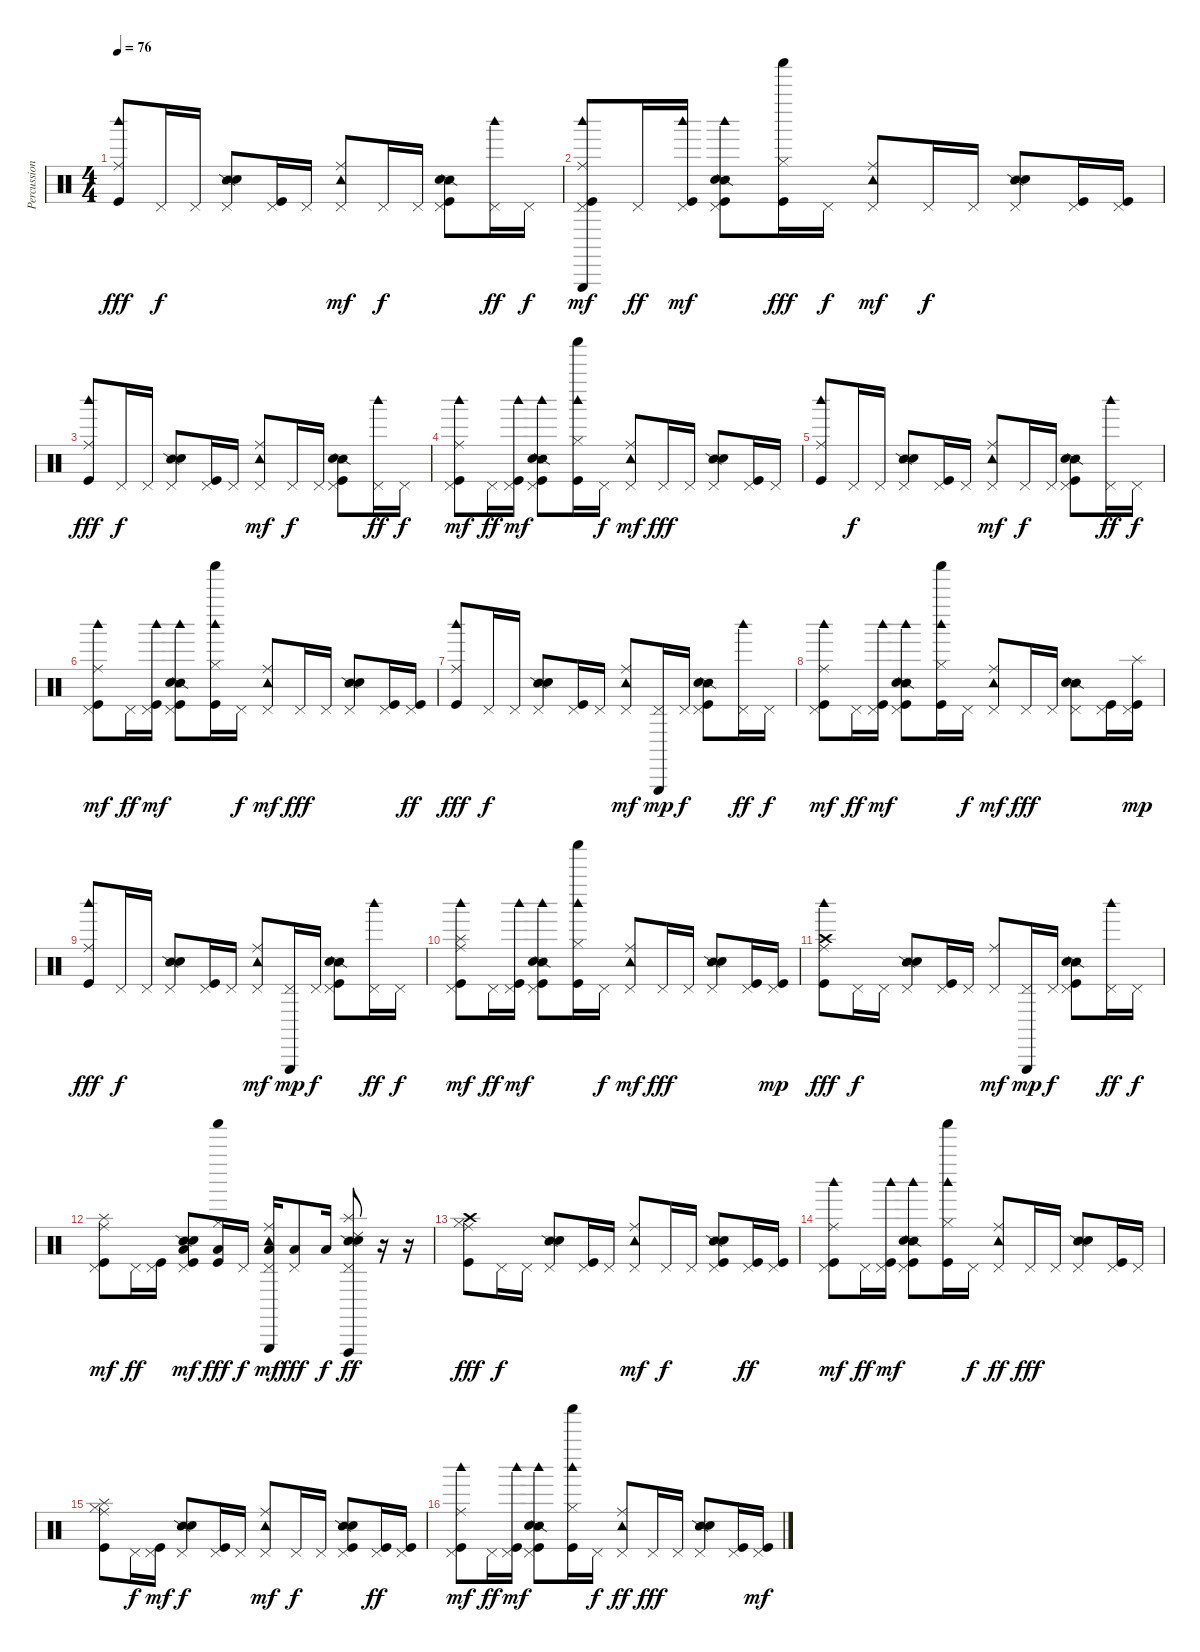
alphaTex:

\track ("Percussion" "Percussion") {instrument percussion}
\staff {score}
\articulation defaults
\ts (4 4)
\tempo 76
\clef neutral
\ks c
("Ride (middle)" "Woodblock high (hit)" "Kick (hit)").8{dy fff} "Pedal Hi-Hat (hit)".16{dy f} "Pedal Hi-Hat (hit)".16 ("Pedal Hi-Hat (hit)" "Snare (side stick) 2" "Hand Clap (hit)").8 ("Pedal Hi-Hat (hit)" "Kick (hit)").16 "Pedal Hi-Hat (hit)".16 ("Pedal Hi-Hat (hit)" "Tambourine (hit)" "Ride (middle)").8{dy mf} "Pedal Hi-Hat (hit)".16{dy f} "Pedal Hi-Hat (hit)".16 ("Pedal Hi-Hat (hit)" "Snare (side stick) 2" "Kick (hit)" "Hand Clap (hit)").8 ("Pedal Hi-Hat (hit)" "Woodblock high (hit)").16{dy ff} "Pedal Hi-Hat (hit)".16{dy f} |
("Pedal Hi-Hat (hit)" "Ride (middle)" "Kick (hit)" "Woodblock high (hit)" "Triangle (hit)").8{dy mf} "Pedal Hi-Hat (hit)".16{dy ff} ("Pedal Hi-Hat (hit)" "Kick (hit)" "Woodblock high (hit)").16{dy mf} ("Pedal Hi-Hat (hit)" "Snare (side stick) 2" "Kick (hit)" "Woodblock high (hit)" "Hand Clap (hit)").8 ("Hi-Hat (closed)" "Shaker (hit)" "Kick (hit)").16{dy fff} "Pedal Hi-Hat (hit)".16{dy f} ("Pedal Hi-Hat (hit)" "Ride (middle)" "Tambourine (hit)").8{dy mf} "Pedal Hi-Hat (hit)".16{dy f} "Pedal Hi-Hat (hit)".16 ("Pedal Hi-Hat (hit)" "Snare (side stick) 2" "Hand Clap (hit)").8 ("Pedal Hi-Hat (hit)" "Kick (hit)").16 ("Pedal Hi-Hat (hit)" "Kick (hit)").16 |
("Ride (middle)" "Woodblock high (hit)" "Kick (hit)").8{dy fff} "Pedal Hi-Hat (hit)".16{dy f} "Pedal Hi-Hat (hit)".16 ("Pedal Hi-Hat (hit)" "Snare (side stick) 2" "Hand Clap (hit)").8 ("Pedal Hi-Hat (hit)" "Kick (hit)").16 "Pedal Hi-Hat (hit)".16 ("Pedal Hi-Hat (hit)" "Tambourine (hit)" "Ride (middle)").8{dy mf} "Pedal Hi-Hat (hit)".16{dy f} "Pedal Hi-Hat (hit)".16 ("Pedal Hi-Hat (hit)" "Snare (side stick) 2" "Kick (hit)" "Hand Clap (hit)").8 ("Pedal Hi-Hat (hit)" "Woodblock high (hit)").16{dy ff} "Pedal Hi-Hat (hit)".16{dy f} |
("Pedal Hi-Hat (hit)" "Ride (middle)" "Kick (hit)" "Woodblock high (hit)").8{dy mf} "Pedal Hi-Hat (hit)".16{dy ff} ("Pedal Hi-Hat (hit)" "Kick (hit)" "Woodblock high (hit)").16{dy mf} ("Pedal Hi-Hat (hit)" "Snare (side stick) 2" "Kick (hit)" "Woodblock high (hit)" "Hand Clap (hit)").8 ("Hi-Hat (closed)" "Shaker (hit)" "Kick (hit)" "Woodblock high (hit)").16 "Pedal Hi-Hat (hit)".16{dy f} ("Pedal Hi-Hat (hit)" "Ride (middle)" "Tambourine (hit)").8{dy mf} "Pedal Hi-Hat (hit)".16{dy fff} "Pedal Hi-Hat (hit)".16 ("Pedal Hi-Hat (hit)" "Snare (side stick) 2" "Hand Clap (hit)").8 ("Pedal Hi-Hat (hit)" "Kick (hit)").16 "Pedal Hi-Hat (hit)".16 |
("Ride (middle)" "Woodblock high (hit)" "Kick (hit)").8 "Pedal Hi-Hat (hit)".16{dy f} "Pedal Hi-Hat (hit)".16 ("Pedal Hi-Hat (hit)" "Snare (side stick) 2" "Hand Clap (hit)").8 ("Pedal Hi-Hat (hit)" "Kick (hit)").16 "Pedal Hi-Hat (hit)".16 ("Pedal Hi-Hat (hit)" "Tambourine (hit)" "Ride (middle)").8{dy mf} "Pedal Hi-Hat (hit)".16{dy f} "Pedal Hi-Hat (hit)".16 ("Pedal Hi-Hat (hit)" "Snare (side stick) 2" "Kick (hit)" "Hand Clap (hit)").8 ("Pedal Hi-Hat (hit)" "Woodblock high (hit)").16{dy ff} "Pedal Hi-Hat (hit)".16{dy f} |
("Pedal Hi-Hat (hit)" "Ride (middle)" "Kick (hit)" "Woodblock high (hit)").8{dy mf volume 12} "Pedal Hi-Hat (hit)".16{dy ff} ("Pedal Hi-Hat (hit)" "Kick (hit)" "Woodblock high (hit)").16{dy mf} ("Pedal Hi-Hat (hit)" "Snare (side stick) 2" "Kick (hit)" "Woodblock high (hit)" "Hand Clap (hit)").8 ("Hi-Hat (closed)" "Shaker (hit)" "Kick (hit)" "Woodblock high (hit)").16 "Pedal Hi-Hat (hit)".16{dy f} ("Pedal Hi-Hat (hit)" "Ride (middle)" "Tambourine (hit)").8{dy mf} "Pedal Hi-Hat (hit)".16{dy fff} "Pedal Hi-Hat (hit)".16 ("Pedal Hi-Hat (hit)" "Snare (side stick) 2" "Hand Clap (hit)").8 ("Pedal Hi-Hat (hit)" "Kick (hit)").16 ("Pedal Hi-Hat (hit)" "Kick (hit)").16{dy ff} |
("Ride (middle)" "Woodblock high (hit)" "Kick (hit)").8{dy fff} "Pedal Hi-Hat (hit)".16{dy f} "Pedal Hi-Hat (hit)".16 ("Pedal Hi-Hat (hit)" "Snare (side stick) 2" "Hand Clap (hit)").8 ("Pedal Hi-Hat (hit)" "Kick (hit)").16 "Pedal Hi-Hat (hit)".16 ("Pedal Hi-Hat (hit)" "Tambourine (hit)" "Ride (middle)").8{dy mf} ("Pedal Hi-Hat (hit)" "Triangle (hit)").16{dy mp} "Pedal Hi-Hat (hit)".16{dy f} ("Pedal Hi-Hat (hit)" "Snare (side stick) 2" "Kick (hit)" "Hand Clap (hit)").8 ("Pedal Hi-Hat (hit)" "Woodblock high (hit)").16{dy ff} "Pedal Hi-Hat (hit)".16{dy f} |
("Pedal Hi-Hat (hit)" "Ride (middle)" "Kick (hit)" "Woodblock high (hit)").8{dy mf} "Pedal Hi-Hat (hit)".16{dy ff} ("Pedal Hi-Hat (hit)" "Kick (hit)" "Woodblock high (hit)").16{dy mf} ("Pedal Hi-Hat (hit)" "Snare (side stick) 2" "Kick (hit)" "Woodblock high (hit)" "Hand Clap (hit)").8 ("Hi-Hat (closed)" "Shaker (hit)" "Kick (hit)" "Woodblock high (hit)").16 "Pedal Hi-Hat (hit)".16{dy f} ("Pedal Hi-Hat (hit)" "Ride (middle)" "Tambourine (hit)").8{dy mf} "Pedal Hi-Hat (hit)".16{dy fff} "Pedal Hi-Hat (hit)".16 ("Pedal Hi-Hat (hit)" "Snare (side stick) 2" "Hand Clap (hit)").8 ("Pedal Hi-Hat (hit)" "Kick (hit)").16 ("Pedal Hi-Hat (hit)" "Kick (hit)" "Splash (hit)").16{dy mp} |
("Ride (middle)" "Woodblock high (hit)" "Kick (hit)").8{dy fff} "Pedal Hi-Hat (hit)".16{dy f} "Pedal Hi-Hat (hit)".16 ("Pedal Hi-Hat (hit)" "Snare (side stick) 2" "Hand Clap (hit)").8 ("Pedal Hi-Hat (hit)" "Kick (hit)").16 "Pedal Hi-Hat (hit)".16 ("Pedal Hi-Hat (hit)" "Tambourine (hit)" "Ride (middle)").8{dy mf} ("Pedal Hi-Hat (hit)" "Triangle (hit)").16{dy mp} "Pedal Hi-Hat (hit)".16{dy f} ("Pedal Hi-Hat (hit)" "Snare (side stick) 2" "Kick (hit)" "Hand Clap (hit)").8 ("Pedal Hi-Hat (hit)" "Woodblock high (hit)").16{dy ff} "Pedal Hi-Hat (hit)".16{dy f} |
("Splash (hit)" "Pedal Hi-Hat (hit)" "Ride (middle)" "Kick (hit)" "Woodblock high (hit)").8{dy mf} "Pedal Hi-Hat (hit)".16{dy ff} ("Pedal Hi-Hat (hit)" "Kick (hit)" "Woodblock high (hit)").16{dy mf} ("Pedal Hi-Hat (hit)" "Snare (side stick) 2" "Kick (hit)" "Woodblock high (hit)" "Hand Clap (hit)").8 ("Hi-Hat (closed)" "Shaker (hit)" "Kick (hit)" "Woodblock high (hit)").16 "Pedal Hi-Hat (hit)".16{dy f} ("Pedal Hi-Hat (hit)" "Ride (middle)" "Tambourine (hit)").8{dy mf} "Pedal Hi-Hat (hit)".16{dy fff} "Pedal Hi-Hat (hit)".16 ("Pedal Hi-Hat (hit)" "Snare (side stick) 2" "Hand Clap (hit)").8 ("Pedal Hi-Hat (hit)" "Kick (hit)").16 ("Pedal Hi-Hat (hit)" "Kick (hit)").16{dy mp} |
("Crash high (hit)" "Ride (middle)" "Woodblock high (hit)" "Kick (hit)").8{dy fff} "Pedal Hi-Hat (hit)".16{dy f} "Pedal Hi-Hat (hit)".16 ("Pedal Hi-Hat (hit)" "Snare (side stick) 2" "Hand Clap (hit)").8 ("Pedal Hi-Hat (hit)" "Kick (hit)").16 "Pedal Hi-Hat (hit)".16 ("Pedal Hi-Hat (hit)" "Ride (middle)").8{dy mf} ("Pedal Hi-Hat (hit)" "Triangle (hit)").16{dy mp} "Pedal Hi-Hat (hit)".16{dy f} ("Pedal Hi-Hat (hit)" "Snare (side stick) 2" "Kick (hit)" "Hand Clap (hit)").8 ("Pedal Hi-Hat (hit)" "Woodblock high (hit)").16{dy ff} "Pedal Hi-Hat (hit)".16{dy f} |
("Splash (hit)" "Pedal Hi-Hat (hit)" "Ride (middle)" "Kick (hit)").8{dy mf} "Pedal Hi-Hat (hit)".16{dy ff} ("Pedal Hi-Hat (hit)" "Kick (hit)").16 ("Pedal Hi-Hat (hit)" "Snare (side stick) 2" "Kick (hit)" "Low Floor Tom (hit)" "Hand Clap (hit)").8{dy mf} ("Hi-Hat (closed)" "Shaker (hit)" "Kick (hit)" "Low Floor Tom (hit)").16{dy fff} "Pedal Hi-Hat (hit)".16{dy f} ("Pedal Hi-Hat (hit)" "Ride (middle)" "Tambourine (hit)" "Triangle (hit)" "Low Floor Tom (hit)").16{dy mf} ("Pedal Hi-Hat (hit)" "Low Floor Tom (hit)").8{dy fff} "Low Floor Tom (hit)".16{dy f} ("Ride (choke) 2" "Pedal Hi-Hat (hit)" "Snare (side stick) 2" "Hand Clap (hit)" "Splash (hit)" "Vibraslap (hit)").8{dy ff} r.16 r.16 |
("Crash high (hit)" "Ride (middle)" "Kick (hit)" "Hi-Hat (closed)").8{dy fff} "Pedal Hi-Hat (hit)".16{dy f} "Pedal Hi-Hat (hit)".16 ("Pedal Hi-Hat (hit)" "Snare (side stick) 2" "Hand Clap (hit)").8 ("Pedal Hi-Hat (hit)" "Kick (hit)").16 "Pedal Hi-Hat (hit)".16 ("Pedal Hi-Hat (hit)" "Tambourine (hit)" "Ride (middle)").8{dy mf} "Pedal Hi-Hat (hit)".16{dy f} "Pedal Hi-Hat (hit)".16 ("Pedal Hi-Hat (hit)" "Snare (side stick) 2" "Kick (hit)" "Hand Clap (hit)").8 ("Pedal Hi-Hat (hit)" "Kick (hit)").16{dy ff} ("Pedal Hi-Hat (hit)" "Kick (hit)").16 |
("Pedal Hi-Hat (hit)" "Ride (middle)" "Kick (hit)" "Woodblock high (hit)").8{dy mf} "Pedal Hi-Hat (hit)".16{dy ff} ("Pedal Hi-Hat (hit)" "Kick (hit)" "Woodblock high (hit)").16{dy mf} ("Pedal Hi-Hat (hit)" "Snare (side stick) 2" "Kick (hit)" "Woodblock high (hit)" "Hand Clap (hit)").8 ("Hi-Hat (closed)" "Shaker (hit)" "Kick (hit)" "Woodblock high (hit)").16 "Pedal Hi-Hat (hit)".16{dy f} ("Pedal Hi-Hat (hit)" "Ride (middle)" "Tambourine (hit)").8{dy ff} "Pedal Hi-Hat (hit)".16{dy fff} "Pedal Hi-Hat (hit)".16 ("Pedal Hi-Hat (hit)" "Snare (side stick) 2" "Hand Clap (hit)").8 ("Pedal Hi-Hat (hit)" "Kick (hit)").16 "Pedal Hi-Hat (hit)".16 |
("Splash (hit)" "Ride (middle)" "Kick (hit)" "Hi-Hat (closed)").8 "Pedal Hi-Hat (hit)".16{dy f} ("Pedal Hi-Hat (hit)" "Kick (hit)").16{dy mf} ("Pedal Hi-Hat (hit)" "Snare (side stick) 2" "Hand Clap (hit)").8{dy f} ("Pedal Hi-Hat (hit)" "Kick (hit)").16 "Pedal Hi-Hat (hit)".16 ("Pedal Hi-Hat (hit)" "Tambourine (hit)" "Ride (middle)").8{dy mf} "Pedal Hi-Hat (hit)".16{dy f} "Pedal Hi-Hat (hit)".16 ("Pedal Hi-Hat (hit)" "Snare (side stick) 2" "Kick (hit)" "Hand Clap (hit)").8 ("Pedal Hi-Hat (hit)" "Kick (hit)").16{dy ff} ("Pedal Hi-Hat (hit)" "Kick (hit)").16 |
("Pedal Hi-Hat (hit)" "Ride (middle)" "Kick (hit)" "Woodblock high (hit)").8{dy mf} "Pedal Hi-Hat (hit)".16{dy ff} ("Pedal Hi-Hat (hit)" "Kick (hit)" "Woodblock high (hit)").16{dy mf} ("Pedal Hi-Hat (hit)" "Snare (side stick) 2" "Kick (hit)" "Woodblock high (hit)" "Hand Clap (hit)").8 ("Hi-Hat (closed)" "Shaker (hit)" "Kick (hit)" "Woodblock high (hit)").16 "Pedal Hi-Hat (hit)".16{dy f} ("Pedal Hi-Hat (hit)" "Ride (middle)" "Tambourine (hit)").8{dy ff} "Pedal Hi-Hat (hit)".16{dy fff} "Pedal Hi-Hat (hit)".16 ("Pedal Hi-Hat (hit)" "Snare (side stick) 2" "Hand Clap (hit)").8 ("Pedal Hi-Hat (hit)" "Kick (hit)").16 ("Pedal Hi-Hat (hit)" "Kick (hit)").16{dy mf}
